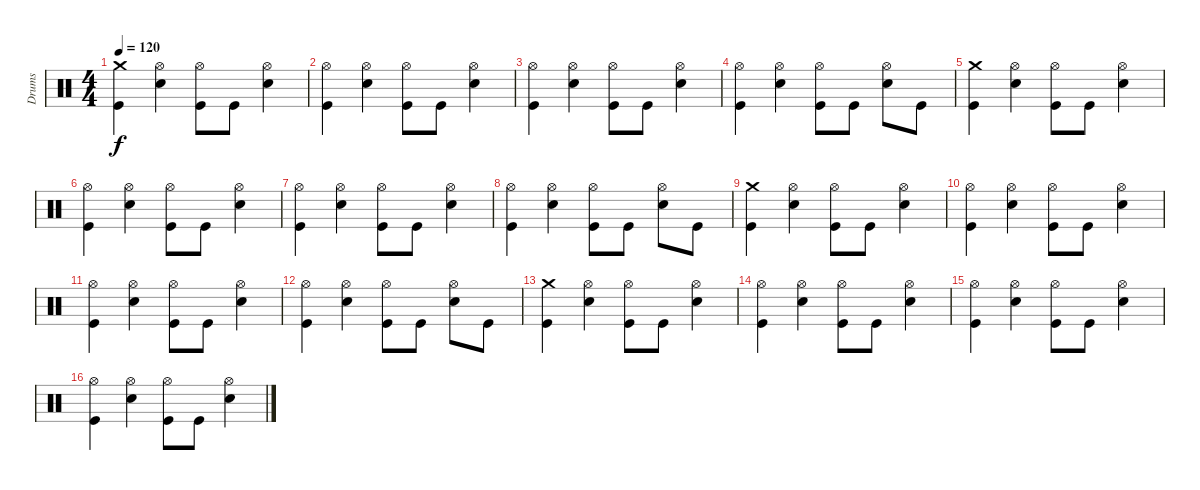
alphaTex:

\track ("Drums" "Drums") {instrument percussion}
\staff {score}
\articulation defaults
\ts (4 4)
\tempo 120
\clef neutral
\ks c
("Crash medium (hit)" "Kick (hit)").4{dy f} ("Hi-Hat (open)" "Snare (hit) 2").4 ("Hi-Hat (open)" "Kick (hit)").8 "Kick (hit)".8 ("Hi-Hat (open)" "Snare (hit) 2").4 |
("Hi-Hat (open)" "Kick (hit)").4 ("Hi-Hat (open)" "Snare (hit) 2").4 ("Hi-Hat (open)" "Kick (hit)").8 "Kick (hit)".8 ("Hi-Hat (open)" "Snare (hit) 2").4 |
("Hi-Hat (open)" "Kick (hit)").4 ("Hi-Hat (open)" "Snare (hit) 2").4 ("Hi-Hat (open)" "Kick (hit)").8 "Kick (hit)".8 ("Hi-Hat (open)" "Snare (hit) 2").4 |
("Hi-Hat (open)" "Kick (hit)").4 ("Hi-Hat (open)" "Snare (hit) 2").4 ("Hi-Hat (open)" "Kick (hit)").8 "Kick (hit)".8 ("Hi-Hat (open)" "Snare (hit) 2").8 "Kick (hit)".8 |
("Crash medium (hit)" "Kick (hit)").4 ("Hi-Hat (open)" "Snare (hit) 2").4 ("Hi-Hat (open)" "Kick (hit)").8 "Kick (hit)".8 ("Hi-Hat (open)" "Snare (hit) 2").4 |
("Hi-Hat (open)" "Kick (hit)").4 ("Hi-Hat (open)" "Snare (hit) 2").4 ("Hi-Hat (open)" "Kick (hit)").8 "Kick (hit)".8 ("Hi-Hat (open)" "Snare (hit) 2").4 |
("Hi-Hat (open)" "Kick (hit)").4 ("Hi-Hat (open)" "Snare (hit) 2").4 ("Hi-Hat (open)" "Kick (hit)").8 "Kick (hit)".8 ("Hi-Hat (open)" "Snare (hit) 2").4 |
("Hi-Hat (open)" "Kick (hit)").4 ("Hi-Hat (open)" "Snare (hit) 2").4 ("Hi-Hat (open)" "Kick (hit)").8 "Kick (hit)".8 ("Hi-Hat (open)" "Snare (hit) 2").8 "Kick (hit)".8 |
("Crash medium (hit)" "Kick (hit)").4 ("Hi-Hat (open)" "Snare (hit) 2").4 ("Hi-Hat (open)" "Kick (hit)").8 "Kick (hit)".8 ("Hi-Hat (open)" "Snare (hit) 2").4 |
("Hi-Hat (open)" "Kick (hit)").4 ("Hi-Hat (open)" "Snare (hit) 2").4 ("Hi-Hat (open)" "Kick (hit)").8 "Kick (hit)".8 ("Hi-Hat (open)" "Snare (hit) 2").4 |
("Hi-Hat (open)" "Kick (hit)").4 ("Hi-Hat (open)" "Snare (hit) 2").4 ("Hi-Hat (open)" "Kick (hit)").8 "Kick (hit)".8 ("Hi-Hat (open)" "Snare (hit) 2").4 |
("Hi-Hat (open)" "Kick (hit)").4 ("Hi-Hat (open)" "Snare (hit) 2").4 ("Hi-Hat (open)" "Kick (hit)").8 "Kick (hit)".8 ("Hi-Hat (open)" "Snare (hit) 2").8 "Kick (hit)".8 |
("Crash medium (hit)" "Kick (hit)").4 ("Hi-Hat (open)" "Snare (hit) 2").4 ("Hi-Hat (open)" "Kick (hit)").8 "Kick (hit)".8 ("Hi-Hat (open)" "Snare (hit) 2").4 |
("Hi-Hat (open)" "Kick (hit)").4 ("Hi-Hat (open)" "Snare (hit) 2").4 ("Hi-Hat (open)" "Kick (hit)").8 "Kick (hit)".8 ("Hi-Hat (open)" "Snare (hit) 2").4 |
("Hi-Hat (open)" "Kick (hit)").4 ("Hi-Hat (open)" "Snare (hit) 2").4 ("Hi-Hat (open)" "Kick (hit)").8 "Kick (hit)".8 ("Hi-Hat (open)" "Snare (hit) 2").4 |
("Hi-Hat (open)" "Kick (hit)").4 ("Hi-Hat (open)" "Snare (hit) 2").4 ("Hi-Hat (open)" "Kick (hit)").8 "Kick (hit)".8 ("Hi-Hat (open)" "Snare (hit) 2").4
